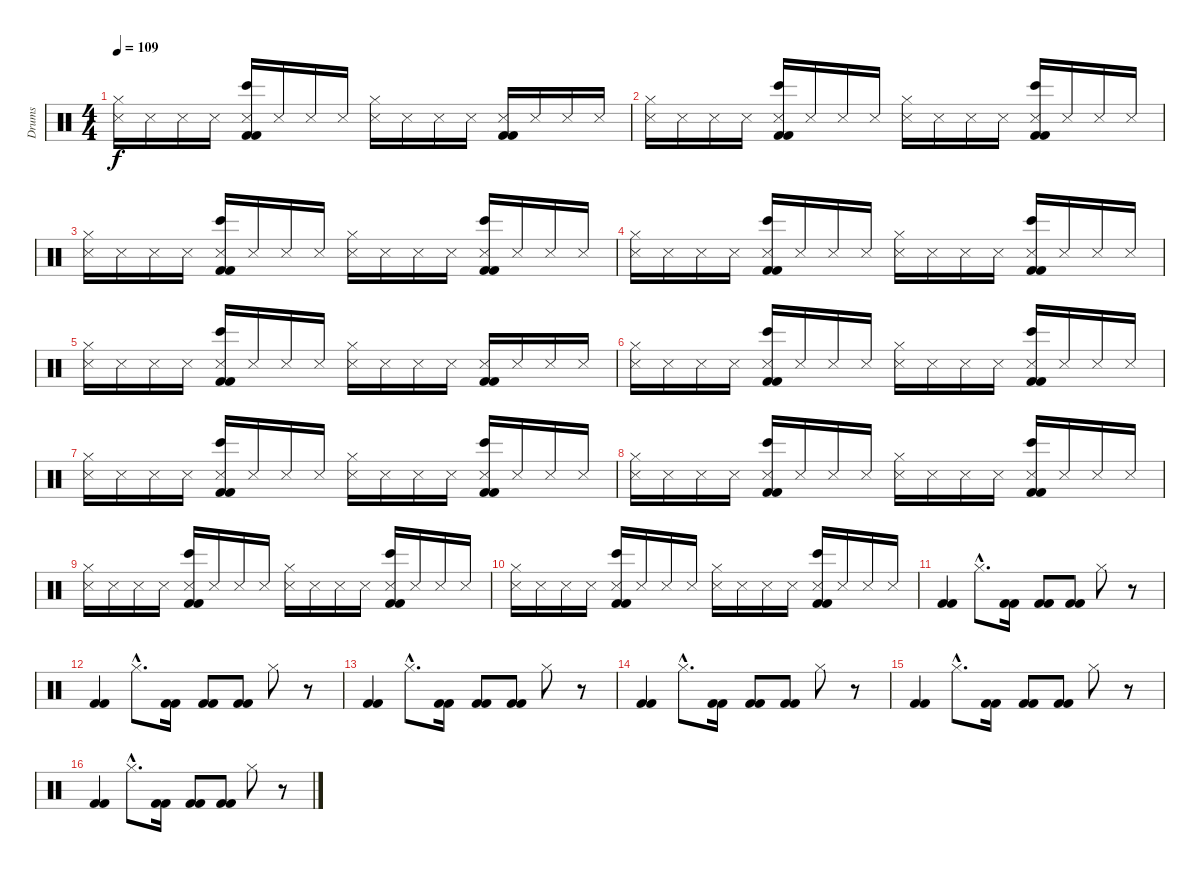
\track ("Drums" "Drums") {instrument percussion}
\staff {score}
\articulation defaults
\ts (4 4)
\tempo 109
\clef neutral
\ks c
("Hi-Hat (closed)" "Snare (side stick) 3").16{dy f} "Snare (side stick) 3".16 "Snare (side stick) 3".16 "Snare (side stick) 3".16 ("Bongo High (hit)" "Snare (side stick) 3" "Kick (hit) 2" "Kick (hit) 2").16 "Snare (side stick) 3".16 "Snare (side stick) 3".16 "Snare (side stick) 3".16 ("Hi-Hat (closed)" "Snare (side stick) 3").16 "Snare (side stick) 3".16 "Snare (side stick) 3".16 "Snare (side stick) 3".16 ("Snare (side stick) 3" "Kick (hit) 2" "Kick (hit) 2").16 "Snare (side stick) 3".16 "Snare (side stick) 3".16 "Snare (side stick) 3".16 |
("Hi-Hat (closed)" "Snare (side stick) 3").16 "Snare (side stick) 3".16 "Snare (side stick) 3".16 "Snare (side stick) 3".16 ("Bongo High (hit)" "Snare (side stick) 3" "Kick (hit) 2" "Kick (hit) 2").16 "Snare (side stick) 3".16 "Snare (side stick) 3".16 "Snare (side stick) 3".16 ("Hi-Hat (closed)" "Snare (side stick) 3").16 "Snare (side stick) 3".16 "Snare (side stick) 3".16 "Snare (side stick) 3".16 ("Bongo High (hit)" "Snare (side stick) 3" "Kick (hit) 2" "Kick (hit) 2").16 "Snare (side stick) 3".16 "Snare (side stick) 3".16 "Snare (side stick) 3".16 |
("Hi-Hat (closed)" "Snare (side stick) 3").16 "Snare (side stick) 3".16 "Snare (side stick) 3".16 "Snare (side stick) 3".16 ("Bongo High (hit)" "Snare (side stick) 3" "Kick (hit) 2" "Kick (hit) 2").16 "Snare (side stick) 3".16 "Snare (side stick) 3".16 "Snare (side stick) 3".16 ("Hi-Hat (closed)" "Snare (side stick) 3").16 "Snare (side stick) 3".16 "Snare (side stick) 3".16 "Snare (side stick) 3".16 ("Bongo High (hit)" "Snare (side stick) 3" "Kick (hit) 2" "Kick (hit) 2").16 "Snare (side stick) 3".16 "Snare (side stick) 3".16 "Snare (side stick) 3".16 |
("Hi-Hat (closed)" "Snare (side stick) 3").16 "Snare (side stick) 3".16 "Snare (side stick) 3".16 "Snare (side stick) 3".16 ("Bongo High (hit)" "Snare (side stick) 3" "Kick (hit) 2" "Kick (hit) 2").16 "Snare (side stick) 3".16 "Snare (side stick) 3".16 "Snare (side stick) 3".16 ("Hi-Hat (closed)" "Snare (side stick) 3").16 "Snare (side stick) 3".16 "Snare (side stick) 3".16 "Snare (side stick) 3".16 ("Bongo High (hit)" "Snare (side stick) 3" "Kick (hit) 2" "Kick (hit) 2").16 "Snare (side stick) 3".16 "Snare (side stick) 3".16 "Snare (side stick) 3".16 |
("Hi-Hat (closed)" "Snare (side stick) 3").16 "Snare (side stick) 3".16 "Snare (side stick) 3".16 "Snare (side stick) 3".16 ("Bongo High (hit)" "Snare (side stick) 3" "Kick (hit) 2" "Kick (hit) 2").16 "Snare (side stick) 3".16 "Snare (side stick) 3".16 "Snare (side stick) 3".16 ("Hi-Hat (closed)" "Snare (side stick) 3").16 "Snare (side stick) 3".16 "Snare (side stick) 3".16 "Snare (side stick) 3".16 ("Snare (side stick) 3" "Kick (hit) 2" "Kick (hit) 2").16 "Snare (side stick) 3".16 "Snare (side stick) 3".16 "Snare (side stick) 3".16 |
("Hi-Hat (closed)" "Snare (side stick) 3").16 "Snare (side stick) 3".16 "Snare (side stick) 3".16 "Snare (side stick) 3".16 ("Bongo High (hit)" "Snare (side stick) 3" "Kick (hit) 2" "Kick (hit) 2").16 "Snare (side stick) 3".16 "Snare (side stick) 3".16 "Snare (side stick) 3".16 ("Hi-Hat (closed)" "Snare (side stick) 3").16 "Snare (side stick) 3".16 "Snare (side stick) 3".16 "Snare (side stick) 3".16 ("Bongo High (hit)" "Snare (side stick) 3" "Kick (hit) 2" "Kick (hit) 2").16 "Snare (side stick) 3".16 "Snare (side stick) 3".16 "Snare (side stick) 3".16 |
("Hi-Hat (closed)" "Snare (side stick) 3").16 "Snare (side stick) 3".16 "Snare (side stick) 3".16 "Snare (side stick) 3".16 ("Bongo High (hit)" "Snare (side stick) 3" "Kick (hit) 2" "Kick (hit) 2").16 "Snare (side stick) 3".16 "Snare (side stick) 3".16 "Snare (side stick) 3".16 ("Hi-Hat (closed)" "Snare (side stick) 3").16 "Snare (side stick) 3".16 "Snare (side stick) 3".16 "Snare (side stick) 3".16 ("Bongo High (hit)" "Snare (side stick) 3" "Kick (hit) 2" "Kick (hit) 2").16 "Snare (side stick) 3".16 "Snare (side stick) 3".16 "Snare (side stick) 3".16 |
("Hi-Hat (closed)" "Snare (side stick) 3").16 "Snare (side stick) 3".16 "Snare (side stick) 3".16 "Snare (side stick) 3".16 ("Bongo High (hit)" "Snare (side stick) 3" "Kick (hit) 2" "Kick (hit) 2").16 "Snare (side stick) 3".16 "Snare (side stick) 3".16 "Snare (side stick) 3".16 ("Hi-Hat (closed)" "Snare (side stick) 3").16 "Snare (side stick) 3".16 "Snare (side stick) 3".16 "Snare (side stick) 3".16 ("Bongo High (hit)" "Snare (side stick) 3" "Kick (hit) 2" "Kick (hit) 2").16 "Snare (side stick) 3".16 "Snare (side stick) 3".16 "Snare (side stick) 3".16 |
("Hi-Hat (closed)" "Snare (side stick) 3").16 "Snare (side stick) 3".16 "Snare (side stick) 3".16 "Snare (side stick) 3".16 ("Bongo High (hit)" "Snare (side stick) 3" "Kick (hit) 2" "Kick (hit) 2").16 "Snare (side stick) 3".16 "Snare (side stick) 3".16 "Snare (side stick) 3".16 ("Hi-Hat (closed)" "Snare (side stick) 3").16 "Snare (side stick) 3".16 "Snare (side stick) 3".16 "Snare (side stick) 3".16 ("Bongo High (hit)" "Snare (side stick) 3" "Kick (hit) 2" "Kick (hit) 2").16 "Snare (side stick) 3".16 "Snare (side stick) 3".16 "Snare (side stick) 3".16 |
("Hi-Hat (closed)" "Snare (side stick) 3").16 "Snare (side stick) 3".16 "Snare (side stick) 3".16 "Snare (side stick) 3".16 ("Bongo High (hit)" "Snare (side stick) 3" "Kick (hit) 2" "Kick (hit) 2").16 "Snare (side stick) 3".16 "Snare (side stick) 3".16 "Snare (side stick) 3".16 ("Hi-Hat (closed)" "Snare (side stick) 3").16 "Snare (side stick) 3".16 "Snare (side stick) 3".16 "Snare (side stick) 3".16 ("Bongo High (hit)" "Snare (side stick) 3" "Kick (hit) 2" "Kick (hit) 2").16 "Snare (side stick) 3".16 "Snare (side stick) 3".16 "Snare (side stick) 3".16 |
("Kick (hit) 2" "Kick (hit) 2").4 "Hi-Hat (closed)"{hac}.8{d} ("Kick (hit) 2" "Kick (hit) 2").16 ("Kick (hit) 2" "Kick (hit) 2").8 ("Kick (hit) 2" "Kick (hit) 2").8 "Hi-Hat (closed)".8 r.8 |
("Kick (hit) 2" "Kick (hit) 2").4 "Hi-Hat (closed)"{hac}.8{d} ("Kick (hit) 2" "Kick (hit) 2").16 ("Kick (hit) 2" "Kick (hit) 2").8 ("Kick (hit) 2" "Kick (hit) 2").8 "Hi-Hat (closed)".8 r.8 |
("Kick (hit) 2" "Kick (hit) 2").4 "Hi-Hat (closed)"{hac}.8{d} ("Kick (hit) 2" "Kick (hit) 2").16 ("Kick (hit) 2" "Kick (hit) 2").8 ("Kick (hit) 2" "Kick (hit) 2").8 "Hi-Hat (closed)".8 r.8 |
("Kick (hit) 2" "Kick (hit) 2").4 "Hi-Hat (closed)"{hac}.8{d} ("Kick (hit) 2" "Kick (hit) 2").16 ("Kick (hit) 2" "Kick (hit) 2").8 ("Kick (hit) 2" "Kick (hit) 2").8 "Hi-Hat (closed)".8 r.8 |
("Kick (hit) 2" "Kick (hit) 2").4 "Hi-Hat (closed)"{hac}.8{d} ("Kick (hit) 2" "Kick (hit) 2").16 ("Kick (hit) 2" "Kick (hit) 2").8 ("Kick (hit) 2" "Kick (hit) 2").8 "Hi-Hat (closed)".8 r.8 |
("Kick (hit) 2" "Kick (hit) 2").4 "Hi-Hat (closed)"{hac}.8{d} ("Kick (hit) 2" "Kick (hit) 2").16 ("Kick (hit) 2" "Kick (hit) 2").8 ("Kick (hit) 2" "Kick (hit) 2").8 "Hi-Hat (closed)".8 r.8
